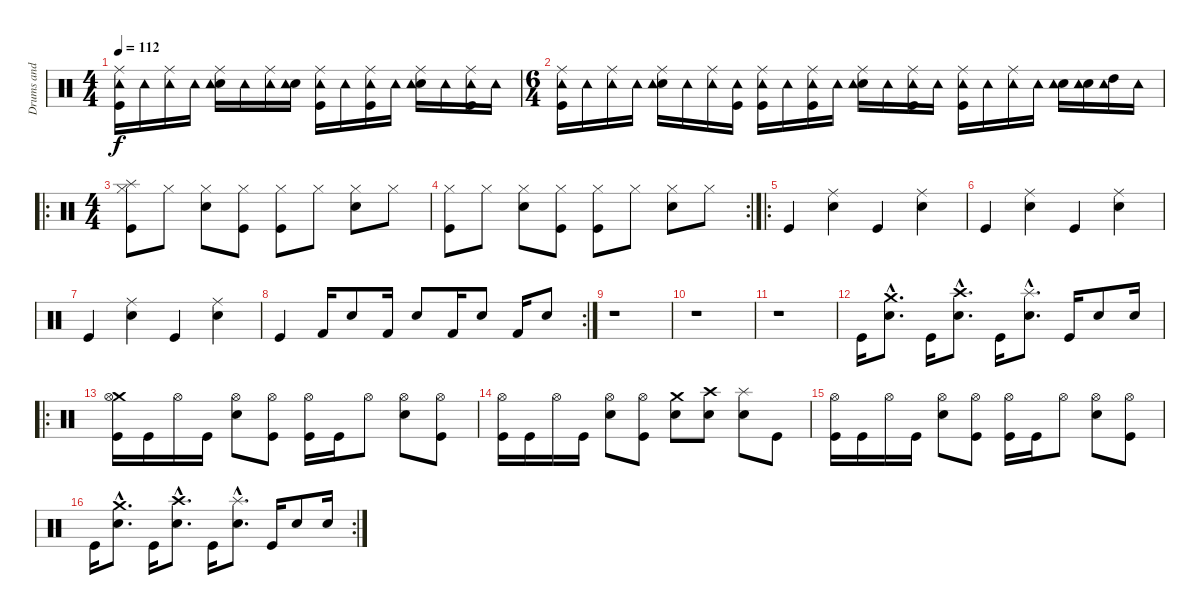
\track ("Drums and Percussions" "Drums and ") {instrument percussion}
\staff {score}
\articulation defaults
\ts (4 4)
\tempo 112
\clef neutral
\ks c
("Ride (middle)" "Kick (hit)" "Tambourine (hit)").16{dy f} "Tambourine (hit)".16 ("Ride (middle)" "Tambourine (hit)").16 "Tambourine (hit)".16 ("Electric Snare (hit)" "Ride (middle)" "Tambourine (hit)").16 "Tambourine (hit)".16 ("Ride (middle)" "Tambourine (hit)").16 ("Electric Snare (hit)" "Tambourine (hit)").16 ("Ride (middle)" "Kick (hit)" "Tambourine (hit)").16 "Tambourine (hit)".16 ("Kick (hit)" "Ride (middle)" "Tambourine (hit)").16 "Tambourine (hit)".16 ("Ride (middle)" "Electric Snare (hit)" "Tambourine (hit)").16 "Tambourine (hit)".16 ("Kick (hit)" "Ride (middle)" "Tambourine (hit)").16 "Tambourine (hit)".16 |
\ts (6 4)
("Ride (middle)" "Kick (hit)" "Tambourine (hit)").16 "Tambourine (hit)".16 ("Ride (middle)" "Tambourine (hit)").16 "Tambourine (hit)".16 ("Electric Snare (hit)" "Ride (middle)" "Tambourine (hit)").16 "Tambourine (hit)".16 ("Ride (middle)" "Tambourine (hit)").16 ("Kick (hit)" "Tambourine (hit)").16 ("Kick (hit)" "Ride (middle)" "Tambourine (hit)").16 "Tambourine (hit)".16 ("Ride (middle)" "Kick (hit)" "Tambourine (hit)").16 "Tambourine (hit)".16 ("Ride (middle)" "Electric Snare (hit)" "Tambourine (hit)").16 "Tambourine (hit)".16 ("Ride (middle)" "Kick (hit)" "Tambourine (hit)").16 "Tambourine (hit)".16 ("Ride (middle)" "Kick (hit)" "Tambourine (hit)").16 "Tambourine (hit)".16 ("Ride (middle)" "Tambourine (hit)").16 "Tambourine (hit)".16 ("Electric Snare (hit)" "Tambourine (hit)").16 ("Electric Snare (hit)" "Tambourine (hit)").16 ("High Tom (hit)" "Tambourine (hit)").16 "Tambourine (hit)".16 |
\ro
\ts (4 4)
("Splash (hit)" "Hi-Hat (closed)" "Kick (hit)").8 "Hi-Hat (closed)".8 ("Electric Snare (hit)" "Hi-Hat (closed)").8 ("Hi-Hat (closed)" "Kick (hit)").8 ("Hi-Hat (closed)" "Kick (hit)").8 "Hi-Hat (closed)".8 ("Electric Snare (hit)" "Hi-Hat (closed)").8 "Hi-Hat (closed)".8 |
\rc 2
("Hi-Hat (closed)" "Kick (hit)").8 "Hi-Hat (closed)".8 ("Electric Snare (hit)" "Hi-Hat (closed)").8 ("Hi-Hat (closed)" "Kick (hit)").8 ("Hi-Hat (closed)" "Kick (hit)").8 "Hi-Hat (closed)".8 ("Electric Snare (hit)" "Hi-Hat (closed)").8 "Hi-Hat (closed)".8 |
\ro "Kick (hit)".4
("Electric Snare (hit)" "Ride (middle)").4 "Kick (hit)".4 ("Electric Snare (hit)" "Ride (middle)").4 |
"Kick (hit)".4 ("Electric Snare (hit)" "Ride (middle)").4 "Kick (hit)".4 ("Electric Snare (hit)" "Ride (middle)").4 |
"Kick (hit)".4 ("Electric Snare (hit)" "Ride (middle)").4 "Kick (hit)".4 ("Electric Snare (hit)" "Ride (middle)").4 |
\rc 2 "Kick (hit)".4 "Kick (hit) 2".16 "Electric Snare (hit)".8 "Kick (hit) 2".16 "Electric Snare (hit)".8 "Kick (hit) 2".16 "Electric Snare (hit)".8 "Kick (hit) 2".16 "Electric Snare (hit)".8
|
r.1 |
r.1 |
r.1 |
"Kick (hit)".16 ("Crash medium (hit)"{hac} "Electric Snare (hit)"{hac}).8{d} "Kick (hit)".16 ("Crash high (hit)"{hac} "Electric Snare (hit)"{hac}).8{d} "Kick (hit)".16 ("Splash (hit)"{hac} "Electric Snare (hit)"{hac}).8{d} "Kick (hit)".16 "Electric Snare (hit)".8 "Electric Snare (hit)".16 |
\ro
("Crash medium (hit)" "Hi-Hat (open)" "Kick (hit)").16 "Kick (hit)".16 "Hi-Hat (open)".16 "Kick (hit)".16 ("Electric Snare (hit)" "Hi-Hat (open)").8 ("Hi-Hat (open)" "Kick (hit)").8 ("Hi-Hat (open)" "Kick (hit)").16 "Kick (hit)".16 "Hi-Hat (open)".8 ("Electric Snare (hit)" "Hi-Hat (open)").8 ("Hi-Hat (open)" "Kick (hit)").8 |
("Hi-Hat (open)" "Kick (hit)").16 "Kick (hit)".16 "Hi-Hat (open)".16 "Kick (hit)".16 ("Electric Snare (hit)" "Hi-Hat (open)").8 ("Hi-Hat (open)" "Kick (hit)").8 ("Crash medium (hit)" "Electric Snare (hit)").8 ("Crash high (hit)" "Electric Snare (hit)").8 ("Splash (hit)" "Electric Snare (hit)").8 "Kick (hit)".8 |
("Hi-Hat (open)" "Kick (hit)").16 "Kick (hit)".16 "Hi-Hat (open)".16 "Kick (hit)".16 ("Electric Snare (hit)" "Hi-Hat (open)").8 ("Hi-Hat (open)" "Kick (hit)").8 ("Hi-Hat (open)" "Kick (hit)").16 "Kick (hit)".16 "Hi-Hat (open)".8 ("Electric Snare (hit)" "Hi-Hat (open)").8 ("Hi-Hat (open)" "Kick (hit)").8 |
\rc 2 "Kick (hit)".16
("Crash medium (hit)"{hac} "Electric Snare (hit)"{hac}).8{d} "Kick (hit)".16 ("Crash high (hit)"{hac} "Electric Snare (hit)"{hac}).8{d} "Kick (hit)".16 ("Splash (hit)"{hac} "Electric Snare (hit)"{hac}).8{d} "Kick (hit)".16 "Electric Snare (hit)".8 "Electric Snare (hit)".16
